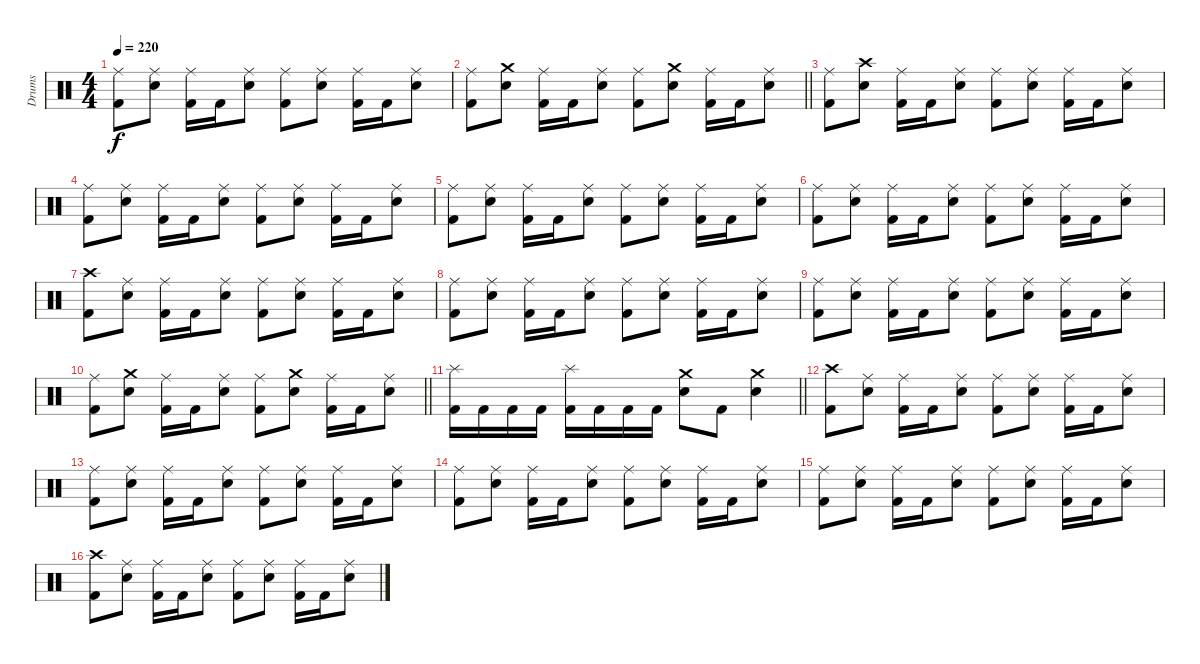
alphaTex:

\track ("Drums" "Drums") {instrument percussion}
\staff {score}
\articulation defaults
\ts (4 4)
\tempo 220
\clef neutral
\ks c
("Ride (middle)" "Kick (hit) 2").8{dy f} ("Ride (middle)" "Snare (hit) 2").8 ("Ride (middle)" "Kick (hit) 2").16 "Kick (hit) 2".16 ("Ride (middle)" "Snare (hit) 2").8 ("Ride (middle)" "Kick (hit) 2").8 ("Ride (middle)" "Snare (hit) 2").8 ("Ride (middle)" "Kick (hit) 2").16 "Kick (hit) 2".16 ("Ride (middle)" "Snare (hit) 2").8 |
\barLineRight lightlight
("Ride (middle)" "Kick (hit) 2").8 ("Crash medium (hit)" "Snare (hit) 2").8 ("Ride (middle)" "Kick (hit) 2").16 "Kick (hit) 2".16 ("Ride (middle)" "Snare (hit) 2").8 ("Ride (middle)" "Kick (hit) 2").8 ("Crash medium (hit)" "Snare (hit) 2").8 ("Ride (middle)" "Kick (hit) 2").16 "Kick (hit) 2".16 ("Ride (middle)" "Snare (hit) 2").8 |
("Ride (middle)" "Kick (hit) 2").8 ("Crash high (hit)" "Snare (hit) 2").8 ("Ride (middle)" "Kick (hit) 2").16 "Kick (hit) 2".16 ("Ride (middle)" "Snare (hit) 2").8 ("Ride (middle)" "Kick (hit) 2").8 ("Ride (middle)" "Snare (hit) 2").8 ("Ride (middle)" "Kick (hit) 2").16 "Kick (hit) 2".16 ("Ride (middle)" "Snare (hit) 2").8 |
("Ride (middle)" "Kick (hit) 2").8 ("Ride (middle)" "Snare (hit) 2").8 ("Ride (middle)" "Kick (hit) 2").16 "Kick (hit) 2".16 ("Ride (middle)" "Snare (hit) 2").8 ("Ride (middle)" "Kick (hit) 2").8 ("Ride (middle)" "Snare (hit) 2").8 ("Ride (middle)" "Kick (hit) 2").16 "Kick (hit) 2".16 ("Ride (middle)" "Snare (hit) 2").8 |
("Ride (middle)" "Kick (hit) 2").8 ("Ride (middle)" "Snare (hit) 2").8 ("Ride (middle)" "Kick (hit) 2").16 "Kick (hit) 2".16 ("Ride (middle)" "Snare (hit) 2").8 ("Ride (middle)" "Kick (hit) 2").8 ("Ride (middle)" "Snare (hit) 2").8 ("Ride (middle)" "Kick (hit) 2").16 "Kick (hit) 2".16 ("Ride (middle)" "Snare (hit) 2").8 |
("Ride (middle)" "Kick (hit) 2").8 ("Ride (middle)" "Snare (hit) 2").8 ("Ride (middle)" "Kick (hit) 2").16 "Kick (hit) 2".16 ("Ride (middle)" "Snare (hit) 2").8 ("Ride (middle)" "Kick (hit) 2").8 ("Ride (middle)" "Snare (hit) 2").8 ("Ride (middle)" "Kick (hit) 2").16 "Kick (hit) 2".16 ("Ride (middle)" "Snare (hit) 2").8 |
("Crash high (hit)" "Kick (hit) 2").8 ("Ride (middle)" "Snare (hit) 2").8 ("Ride (middle)" "Kick (hit) 2").16 "Kick (hit) 2".16 ("Ride (middle)" "Snare (hit) 2").8 ("Ride (middle)" "Kick (hit) 2").8 ("Ride (middle)" "Snare (hit) 2").8 ("Ride (middle)" "Kick (hit) 2").16 "Kick (hit) 2".16 ("Ride (middle)" "Snare (hit) 2").8 |
("Ride (middle)" "Kick (hit) 2").8 ("Ride (middle)" "Snare (hit) 2").8 ("Ride (middle)" "Kick (hit) 2").16 "Kick (hit) 2".16 ("Ride (middle)" "Snare (hit) 2").8 ("Ride (middle)" "Kick (hit) 2").8 ("Ride (middle)" "Snare (hit) 2").8 ("Ride (middle)" "Kick (hit) 2").16 "Kick (hit) 2".16 ("Ride (middle)" "Snare (hit) 2").8 |
("Ride (middle)" "Kick (hit) 2").8 ("Ride (middle)" "Snare (hit) 2").8 ("Ride (middle)" "Kick (hit) 2").16 "Kick (hit) 2".16 ("Ride (middle)" "Snare (hit) 2").8 ("Ride (middle)" "Kick (hit) 2").8 ("Ride (middle)" "Snare (hit) 2").8 ("Ride (middle)" "Kick (hit) 2").16 "Kick (hit) 2".16 ("Ride (middle)" "Snare (hit) 2").8 |
\barLineRight lightlight
("Ride (middle)" "Kick (hit) 2").8 ("Crash medium (hit)" "Snare (hit) 2").8 ("Ride (middle)" "Kick (hit) 2").16 "Kick (hit) 2".16 ("Ride (middle)" "Snare (hit) 2").8 ("Ride (middle)" "Kick (hit) 2").8 ("Crash medium (hit)" "Snare (hit) 2").8 ("Ride (middle)" "Kick (hit) 2").16 "Kick (hit) 2".16 ("Ride (middle)" "Snare (hit) 2").8 |
\section ("" "")
\barLineRight lightlight
("Splash (hit)" "Kick (hit) 2").16 "Kick (hit) 2".16 "Kick (hit) 2".16 "Kick (hit) 2".16 ("Splash (hit)" "Kick (hit) 2").16 "Kick (hit) 2".16 "Kick (hit) 2".16 "Kick (hit) 2".16 ("Crash medium (hit)" "Snare (hit) 2").8 "Kick (hit) 2".8 ("Crash medium (hit)" "Snare (hit) 2").4 |
\section ("" "")
("Crash high (hit)" "Kick (hit) 2").8 ("Ride (middle)" "Snare (hit) 2").8 ("Ride (middle)" "Kick (hit) 2").16 "Kick (hit) 2".16 ("Ride (middle)" "Snare (hit) 2").8 ("Ride (middle)" "Kick (hit) 2").8 ("Ride (middle)" "Snare (hit) 2").8 ("Ride (middle)" "Kick (hit) 2").16 "Kick (hit) 2".16 ("Ride (middle)" "Snare (hit) 2").8 |
("Ride (middle)" "Kick (hit) 2").8 ("Ride (middle)" "Snare (hit) 2").8 ("Ride (middle)" "Kick (hit) 2").16 "Kick (hit) 2".16 ("Ride (middle)" "Snare (hit) 2").8 ("Ride (middle)" "Kick (hit) 2").8 ("Ride (middle)" "Snare (hit) 2").8 ("Ride (middle)" "Kick (hit) 2").16 "Kick (hit) 2".16 ("Ride (middle)" "Snare (hit) 2").8 |
("Ride (middle)" "Kick (hit) 2").8 ("Ride (middle)" "Snare (hit) 2").8 ("Ride (middle)" "Kick (hit) 2").16 "Kick (hit) 2".16 ("Ride (middle)" "Snare (hit) 2").8 ("Ride (middle)" "Kick (hit) 2").8 ("Ride (middle)" "Snare (hit) 2").8 ("Ride (middle)" "Kick (hit) 2").16 "Kick (hit) 2".16 ("Ride (middle)" "Snare (hit) 2").8 |
("Ride (middle)" "Kick (hit) 2").8 ("Ride (middle)" "Snare (hit) 2").8 ("Ride (middle)" "Kick (hit) 2").16 "Kick (hit) 2".16 ("Ride (middle)" "Snare (hit) 2").8 ("Ride (middle)" "Kick (hit) 2").8 ("Ride (middle)" "Snare (hit) 2").8 ("Ride (middle)" "Kick (hit) 2").16 "Kick (hit) 2".16 ("Ride (middle)" "Snare (hit) 2").8 |
("Crash high (hit)" "Kick (hit) 2").8 ("Ride (middle)" "Snare (hit) 2").8 ("Ride (middle)" "Kick (hit) 2").16 "Kick (hit) 2".16 ("Ride (middle)" "Snare (hit) 2").8 ("Ride (middle)" "Kick (hit) 2").8 ("Ride (middle)" "Snare (hit) 2").8 ("Ride (middle)" "Kick (hit) 2").16 "Kick (hit) 2".16 ("Ride (middle)" "Snare (hit) 2").8
